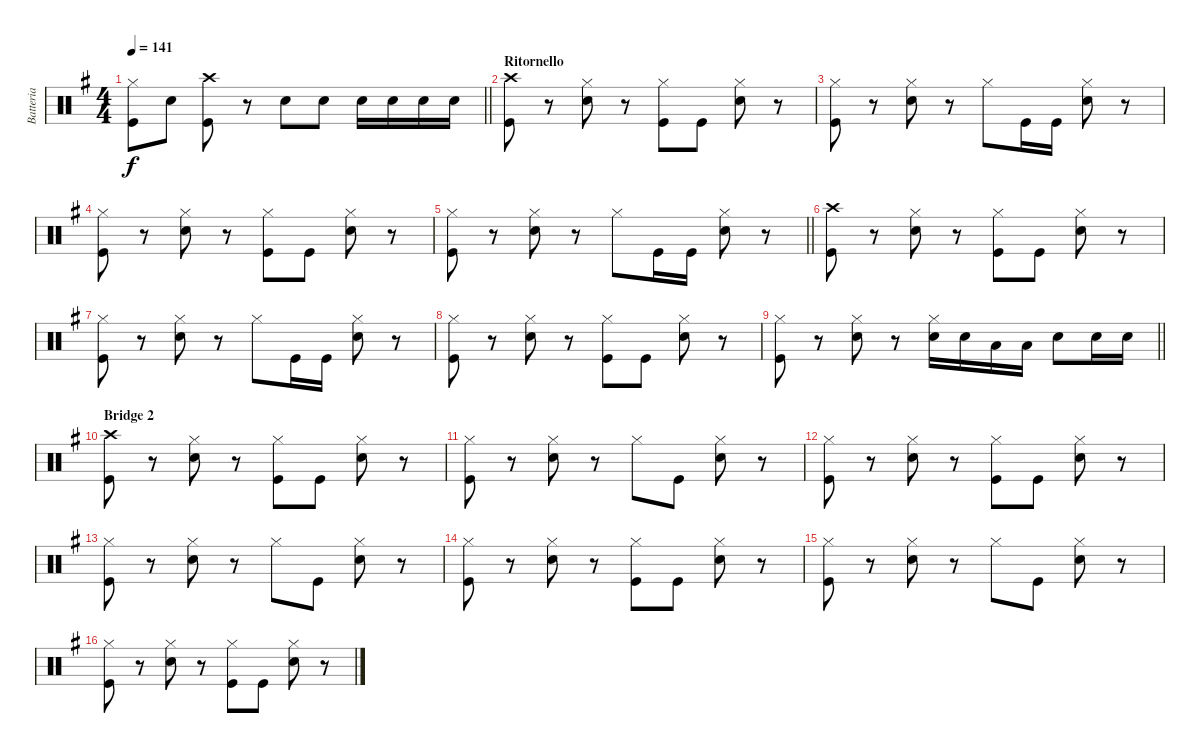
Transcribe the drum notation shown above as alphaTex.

\track ("Batteria" "Batteria") {instrument percussion}
\staff {score}
\articulation defaults
\ts (4 4)
\tempo 141
\clef neutral
\barLineRight lightlight
\ks eminor
("Hi-Hat (closed)" "Kick (hit)").8{dy f} "Electric Snare (hit)".8 ("Crash high (hit)" "Kick (hit)").8 r.8 "Electric Snare (hit)".8 "Electric Snare (hit)".8 "Electric Snare (hit)".16 "Electric Snare (hit)".16 "Electric Snare (hit)".16 "Electric Snare (hit)".16 |
\section ("" "Ritornello")
("Crash high (hit)" "Kick (hit)").8 r.8 ("Hi-Hat (closed)" "Electric Snare (hit)").8 r.8 ("Hi-Hat (closed)" "Kick (hit)").8 "Kick (hit)".8 ("Hi-Hat (closed)" "Electric Snare (hit)").8 r.8 |
("Hi-Hat (closed)" "Kick (hit)").8 r.8 ("Hi-Hat (closed)" "Electric Snare (hit)").8 r.8 "Hi-Hat (closed)".8 "Kick (hit)".16 "Kick (hit)".16 ("Hi-Hat (closed)" "Electric Snare (hit)").8 r.8 |
("Hi-Hat (closed)" "Kick (hit)").8 r.8 ("Hi-Hat (closed)" "Electric Snare (hit)").8 r.8 ("Hi-Hat (closed)" "Kick (hit)").8 "Kick (hit)".8 ("Hi-Hat (closed)" "Electric Snare (hit)").8 r.8 |
\barLineRight lightlight
("Hi-Hat (closed)" "Kick (hit)").8 r.8 ("Hi-Hat (closed)" "Electric Snare (hit)").8 r.8 "Hi-Hat (closed)".8 "Kick (hit)".16 "Kick (hit)".16 ("Hi-Hat (closed)" "Electric Snare (hit)").8 r.8 |
("Crash high (hit)" "Kick (hit)").8 r.8 ("Hi-Hat (closed)" "Electric Snare (hit)").8 r.8 ("Hi-Hat (closed)" "Kick (hit)").8 "Kick (hit)".8 ("Hi-Hat (closed)" "Electric Snare (hit)").8 r.8 |
("Hi-Hat (closed)" "Kick (hit)").8 r.8 ("Hi-Hat (closed)" "Electric Snare (hit)").8 r.8 "Hi-Hat (closed)".8 "Kick (hit)".16 "Kick (hit)".16 ("Hi-Hat (closed)" "Electric Snare (hit)").8 r.8 |
("Hi-Hat (closed)" "Kick (hit)").8 r.8 ("Hi-Hat (closed)" "Electric Snare (hit)").8 r.8 ("Hi-Hat (closed)" "Kick (hit)").8 "Kick (hit)".8 ("Hi-Hat (closed)" "Electric Snare (hit)").8 r.8 |
\barLineRight lightlight
("Hi-Hat (closed)" "Kick (hit)").8 r.8 ("Hi-Hat (closed)" "Electric Snare (hit)").8 r.8 ("Hi-Hat (closed)" "Electric Snare (hit)").16 "Electric Snare (hit)".16 "Low Tom (hit)".16 "Low Tom (hit)".16 "Electric Snare (hit)".8 "Electric Snare (hit)".16 "Electric Snare (hit)".16 |
\section ("" "Bridge 2")
("Crash high (hit)" "Kick (hit)").8 r.8 ("Hi-Hat (closed)" "Electric Snare (hit)").8 r.8 ("Hi-Hat (closed)" "Kick (hit)").8 "Kick (hit)".8 ("Hi-Hat (closed)" "Electric Snare (hit)").8 r.8 |
("Hi-Hat (closed)" "Kick (hit)").8 r.8 ("Hi-Hat (closed)" "Electric Snare (hit)").8 r.8 "Hi-Hat (closed)".8 "Kick (hit)".8 ("Hi-Hat (closed)" "Electric Snare (hit)").8 r.8 |
("Hi-Hat (closed)" "Kick (hit)").8 r.8 ("Hi-Hat (closed)" "Electric Snare (hit)").8 r.8 ("Hi-Hat (closed)" "Kick (hit)").8 "Kick (hit)".8 ("Hi-Hat (closed)" "Electric Snare (hit)").8 r.8 |
("Hi-Hat (closed)" "Kick (hit)").8 r.8 ("Hi-Hat (closed)" "Electric Snare (hit)").8 r.8 "Hi-Hat (closed)".8 "Kick (hit)".8 ("Hi-Hat (closed)" "Electric Snare (hit)").8 r.8 |
("Hi-Hat (closed)" "Kick (hit)").8 r.8 ("Hi-Hat (closed)" "Electric Snare (hit)").8 r.8 ("Hi-Hat (closed)" "Kick (hit)").8 "Kick (hit)".8 ("Hi-Hat (closed)" "Electric Snare (hit)").8 r.8 |
("Hi-Hat (closed)" "Kick (hit)").8 r.8 ("Hi-Hat (closed)" "Electric Snare (hit)").8 r.8 "Hi-Hat (closed)".8 "Kick (hit)".8 ("Hi-Hat (closed)" "Electric Snare (hit)").8 r.8 |
("Hi-Hat (closed)" "Kick (hit)").8 r.8 ("Hi-Hat (closed)" "Electric Snare (hit)").8 r.8 ("Hi-Hat (closed)" "Kick (hit)").8 "Kick (hit)".8 ("Hi-Hat (closed)" "Electric Snare (hit)").8 r.8
